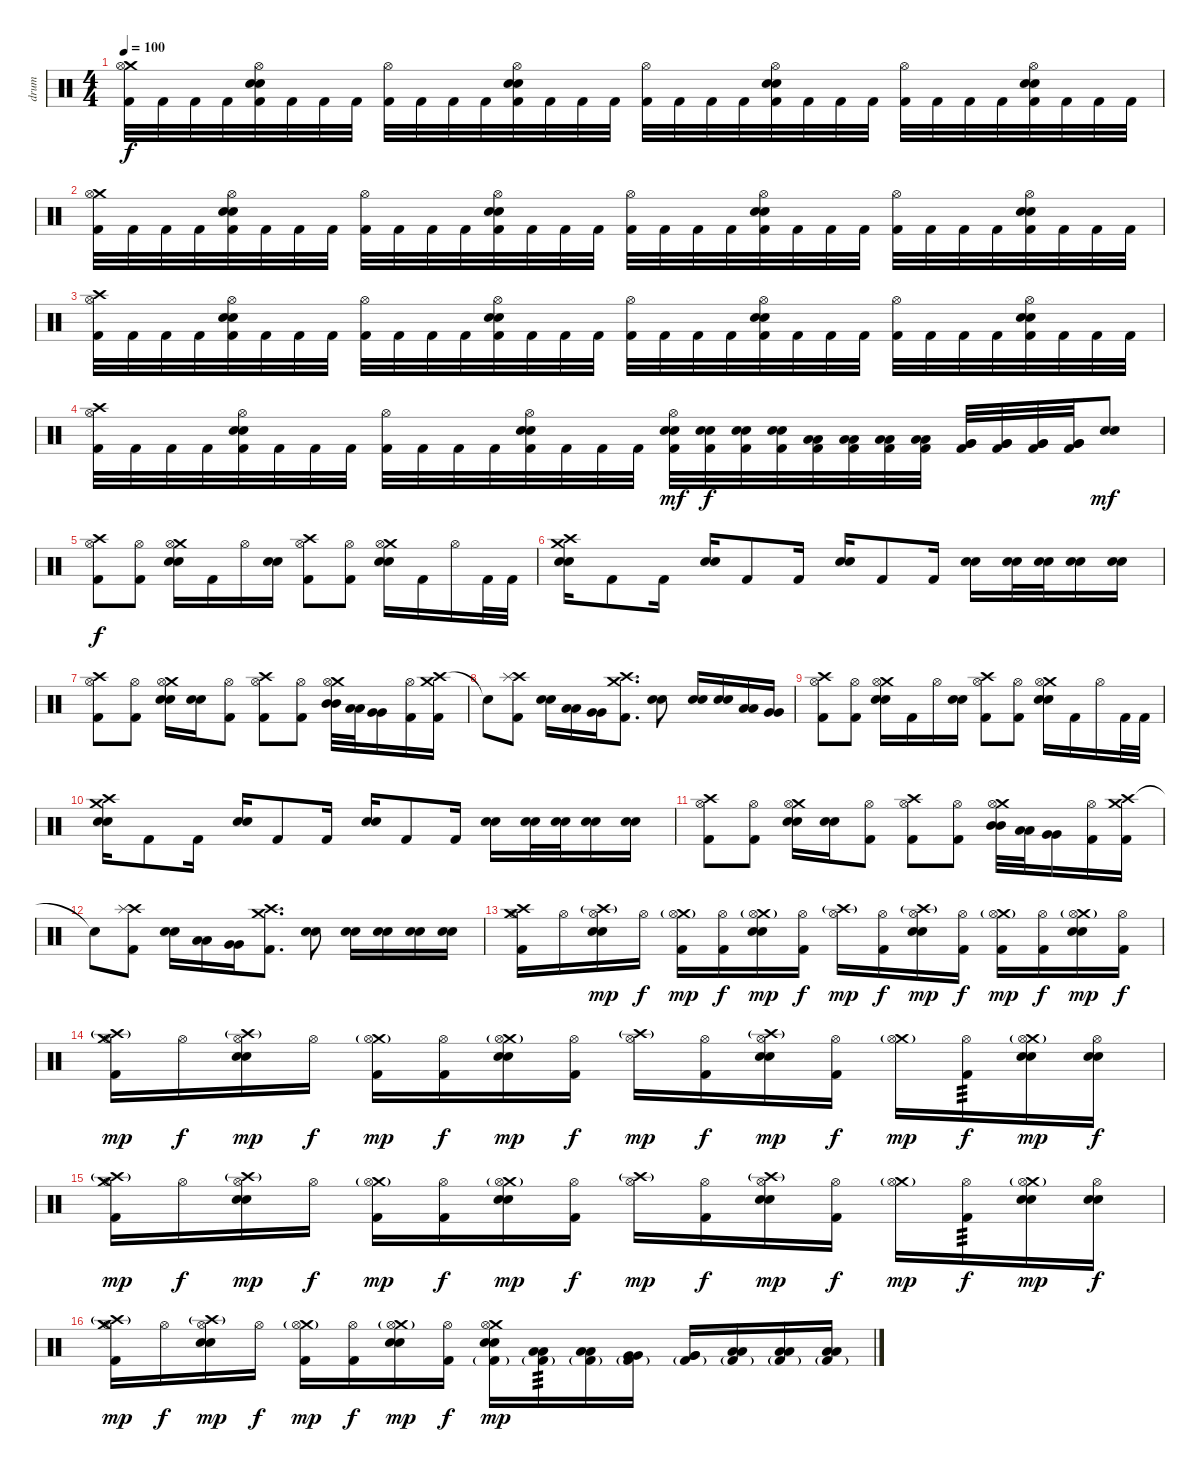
\track ("drum" "drum") {instrument percussion}
\staff {score}
\articulation defaults
\ts (4 4)
\tempo 100
\clef neutral
\ks c
("Crash medium (hit)" "Hi-Hat (open)" "Kick (hit) 2").32{dy f} "Kick (hit) 2".32 "Kick (hit) 2".32 "Kick (hit) 2".32 ("Hi-Hat (open)" "Electric Snare (hit)" "Snare (hit) 2" "Kick (hit) 2").32 "Kick (hit) 2".32 "Kick (hit) 2".32 "Kick (hit) 2".32 ("Hi-Hat (open)" "Kick (hit) 2").32 "Kick (hit) 2".32 "Kick (hit) 2".32 "Kick (hit) 2".32 ("Hi-Hat (open)" "Electric Snare (hit)" "Snare (hit) 2" "Kick (hit) 2").32 "Kick (hit) 2".32 "Kick (hit) 2".32 "Kick (hit) 2".32 ("Hi-Hat (open)" "Kick (hit) 2").32 "Kick (hit) 2".32 "Kick (hit) 2".32 "Kick (hit) 2".32 ("Hi-Hat (open)" "Electric Snare (hit)" "Snare (hit) 2" "Kick (hit) 2").32 "Kick (hit) 2".32 "Kick (hit) 2".32 "Kick (hit) 2".32 ("Hi-Hat (open)" "Kick (hit) 2").32 "Kick (hit) 2".32 "Kick (hit) 2".32 "Kick (hit) 2".32 ("Hi-Hat (open)" "Electric Snare (hit)" "Snare (hit) 2" "Kick (hit) 2").32 "Kick (hit) 2".32 "Kick (hit) 2".32 "Kick (hit) 2".32 |
("Crash medium (hit)" "Hi-Hat (open)" "Kick (hit) 2").32 "Kick (hit) 2".32 "Kick (hit) 2".32 "Kick (hit) 2".32 ("Hi-Hat (open)" "Electric Snare (hit)" "Snare (hit) 2" "Kick (hit) 2").32 "Kick (hit) 2".32 "Kick (hit) 2".32 "Kick (hit) 2".32 ("Hi-Hat (open)" "Kick (hit) 2").32 "Kick (hit) 2".32 "Kick (hit) 2".32 "Kick (hit) 2".32 ("Hi-Hat (open)" "Electric Snare (hit)" "Snare (hit) 2" "Kick (hit) 2").32 "Kick (hit) 2".32 "Kick (hit) 2".32 "Kick (hit) 2".32 ("Hi-Hat (open)" "Kick (hit) 2").32 "Kick (hit) 2".32 "Kick (hit) 2".32 "Kick (hit) 2".32 ("Hi-Hat (open)" "Electric Snare (hit)" "Snare (hit) 2" "Kick (hit) 2").32 "Kick (hit) 2".32 "Kick (hit) 2".32 "Kick (hit) 2".32 ("Hi-Hat (open)" "Kick (hit) 2").32 "Kick (hit) 2".32 "Kick (hit) 2".32 "Kick (hit) 2".32 ("Hi-Hat (open)" "Electric Snare (hit)" "Snare (hit) 2" "Kick (hit) 2").32 "Kick (hit) 2".32 "Kick (hit) 2".32 "Kick (hit) 2".32 |
("Crash high (hit)" "Hi-Hat (open)" "Kick (hit) 2").32 "Kick (hit) 2".32 "Kick (hit) 2".32 "Kick (hit) 2".32 ("Hi-Hat (open)" "Electric Snare (hit)" "Snare (hit) 2" "Kick (hit) 2").32 "Kick (hit) 2".32 "Kick (hit) 2".32 "Kick (hit) 2".32 ("Hi-Hat (open)" "Kick (hit) 2").32 "Kick (hit) 2".32 "Kick (hit) 2".32 "Kick (hit) 2".32 ("Hi-Hat (open)" "Electric Snare (hit)" "Snare (hit) 2" "Kick (hit) 2").32 "Kick (hit) 2".32 "Kick (hit) 2".32 "Kick (hit) 2".32 ("Hi-Hat (open)" "Kick (hit) 2").32 "Kick (hit) 2".32 "Kick (hit) 2".32 "Kick (hit) 2".32 ("Hi-Hat (open)" "Electric Snare (hit)" "Snare (hit) 2" "Kick (hit) 2").32 "Kick (hit) 2".32 "Kick (hit) 2".32 "Kick (hit) 2".32 ("Hi-Hat (open)" "Kick (hit) 2").32 "Kick (hit) 2".32 "Kick (hit) 2".32 "Kick (hit) 2".32 ("Hi-Hat (open)" "Electric Snare (hit)" "Snare (hit) 2" "Kick (hit) 2").32 "Kick (hit) 2".32 "Kick (hit) 2".32 "Kick (hit) 2".32 |
("Crash high (hit)" "Hi-Hat (open)" "Kick (hit) 2").32 "Kick (hit) 2".32 "Kick (hit) 2".32 "Kick (hit) 2".32 ("Hi-Hat (open)" "Electric Snare (hit)" "Snare (hit) 2" "Kick (hit) 2").32 "Kick (hit) 2".32 "Kick (hit) 2".32 "Kick (hit) 2".32 ("Hi-Hat (open)" "Kick (hit) 2").32 "Kick (hit) 2".32 "Kick (hit) 2".32 "Kick (hit) 2".32 ("Hi-Hat (open)" "Electric Snare (hit)" "Snare (hit) 2" "Kick (hit) 2").32 "Kick (hit) 2".32 "Kick (hit) 2".32 "Kick (hit) 2".32 ("Hi-Hat (open)" "Electric Snare (hit)" "Snare (hit) 2" "Kick (hit) 2").32{dy mf} ("Electric Snare (hit)" "Snare (hit) 2" "Kick (hit) 2").32{dy f} ("Electric Snare (hit)" "Snare (hit) 2" "Kick (hit) 2").32 ("Electric Snare (hit)" "Snare (hit) 2" "Kick (hit) 2").32 ("Low Tom (hit)" "Low Tom (hit)" "Kick (hit) 2").32 ("Low Tom (hit)" "Low Tom (hit)" "Kick (hit) 2").32 ("Low Tom (hit)" "Low Tom (hit)" "Kick (hit) 2").32 ("Low Tom (hit)" "Low Tom (hit)" "Kick (hit) 2").32 ("Very Low Tom (hit)" "Very Low Tom (hit)" "Kick (hit) 2").32 ("Very Low Tom (hit)" "Very Low Tom (hit)" "Kick (hit) 2").32 ("Very Low Tom (hit)" "Very Low Tom (hit)" "Kick (hit) 2").32 ("Very Low Tom (hit)" "Very Low Tom (hit)" "Kick (hit) 2").32 ("Electric Snare (hit)" "Snare (hit) 2").8{bd 60 dy mf} |
("Crash high (hit)" "Hi-Hat (open)" "Kick (hit) 2").8{dy f} ("Hi-Hat (open)" "Kick (hit) 2").8 ("Crash medium (hit)" "Hi-Hat (open)" "Electric Snare (hit)" "Snare (hit) 2").16 "Kick (hit) 2".16 "Hi-Hat (open)".16 ("Electric Snare (hit)" "Snare (hit) 2").16 ("Crash high (hit)" "Hi-Hat (open)" "Kick (hit) 2").8 ("Hi-Hat (open)" "Kick (hit) 2").8 ("Crash medium (hit)" "Hi-Hat (open)" "Electric Snare (hit)" "Snare (hit) 2").16 "Kick (hit) 2".16 "Hi-Hat (open)".16 "Kick (hit) 2".32 "Kick (hit) 2".32 |
("Crash medium (hit)" "Crash high (hit)" "Electric Snare (hit)" "Snare (hit) 2").16 "Kick (hit) 2".8 "Kick (hit) 2".16 ("Electric Snare (hit)" "Snare (hit) 2").16 "Kick (hit) 2".8 "Kick (hit) 2".16 ("Electric Snare (hit)" "Snare (hit) 2").16 "Kick (hit) 2".8 "Kick (hit) 2".16 ("Electric Snare (hit)" "Snare (hit) 2").16 ("Electric Snare (hit)" "Snare (hit) 2").32 ("Electric Snare (hit)" "Snare (hit) 2").32 ("Electric Snare (hit)" "Snare (hit) 2").16 ("Electric Snare (hit)" "Snare (hit) 2").16 |
("Crash high (hit)" "Hi-Hat (open)" "Kick (hit) 2").8 ("Hi-Hat (open)" "Kick (hit) 2").8 ("Crash medium (hit)" "Hi-Hat (open)" "Electric Snare (hit)" "Snare (hit) 2").16 ("Electric Snare (hit)" "Snare (hit) 2").16 ("Hi-Hat (open)" "Kick (hit) 2").8 ("Crash high (hit)" "Hi-Hat (open)" "Kick (hit) 2").8 ("Hi-Hat (open)" "Kick (hit) 2").8 ("Crash medium (hit)" "Hi-Hat (open)" "Mid Tom (hit)" "Mid Tom (hit)").32 ("Low Tom (hit)" "Low Tom (hit)").32 ("Very Low Tom (hit)" "Very Low Tom (hit)").16 ("Hi-Hat (open)" "Kick (hit) 2").16 ("Crash high (hit)" "Crash medium (hit)" "Kick (hit) 2").16 |
"Snare (hit)"{t}.8 ("Crash high (hit)" "Splash (hit)" "Kick (hit) 2").8 ("Electric Snare (hit)" "Snare (hit) 2").16 ("Low Tom (hit)" "Low Tom (hit)").16 ("Very Low Tom (hit)" "Very Low Tom (hit)").16 ("Crash high (hit)" "Crash medium (hit)" "Kick (hit) 2").8{d} ("Electric Snare (hit)" "Snare (hit) 2").8 ("Electric Snare (hit)" "Snare (hit) 2").16 ("Electric Snare (hit)" "Snare (hit) 2").16 ("Low Tom (hit)" "Low Tom (hit)").16 ("Very Low Tom (hit)" "Very Low Tom (hit)").16 |
("Crash high (hit)" "Hi-Hat (open)" "Kick (hit) 2").8 ("Hi-Hat (open)" "Kick (hit) 2").8 ("Crash medium (hit)" "Hi-Hat (open)" "Electric Snare (hit)" "Snare (hit) 2").16 "Kick (hit) 2".16 "Hi-Hat (open)".16 ("Electric Snare (hit)" "Snare (hit) 2").16 ("Crash high (hit)" "Hi-Hat (open)" "Kick (hit) 2").8 ("Hi-Hat (open)" "Kick (hit) 2").8 ("Crash medium (hit)" "Hi-Hat (open)" "Electric Snare (hit)" "Snare (hit) 2").16 "Kick (hit) 2".16 "Hi-Hat (open)".16 "Kick (hit) 2".32 "Kick (hit) 2".32 |
("Crash medium (hit)" "Crash high (hit)" "Electric Snare (hit)" "Snare (hit) 2").16 "Kick (hit) 2".8 "Kick (hit) 2".16 ("Electric Snare (hit)" "Snare (hit) 2").16 "Kick (hit) 2".8 "Kick (hit) 2".16 ("Electric Snare (hit)" "Snare (hit) 2").16 "Kick (hit) 2".8 "Kick (hit) 2".16 ("Electric Snare (hit)" "Snare (hit) 2").16 ("Electric Snare (hit)" "Snare (hit) 2").32 ("Electric Snare (hit)" "Snare (hit) 2").32 ("Electric Snare (hit)" "Snare (hit) 2").16 ("Electric Snare (hit)" "Snare (hit) 2").16 |
("Crash high (hit)" "Hi-Hat (open)" "Kick (hit) 2").8 ("Hi-Hat (open)" "Kick (hit) 2").8 ("Crash medium (hit)" "Hi-Hat (open)" "Electric Snare (hit)" "Snare (hit) 2").16 ("Electric Snare (hit)" "Snare (hit) 2").16 ("Hi-Hat (open)" "Kick (hit) 2").8 ("Crash high (hit)" "Hi-Hat (open)" "Kick (hit) 2").8 ("Hi-Hat (open)" "Kick (hit) 2").8 ("Crash medium (hit)" "Hi-Hat (open)" "Mid Tom (hit)" "Mid Tom (hit)").32 ("Low Tom (hit)" "Low Tom (hit)").32 ("Very Low Tom (hit)" "Very Low Tom (hit)").16 ("Hi-Hat (open)" "Kick (hit) 2").16 ("Crash high (hit)" "Crash medium (hit)" "Kick (hit) 2").16 |
"Snare (hit)"{t}.8 ("Crash high (hit)" "Splash (hit)" "Kick (hit) 2").8 ("Electric Snare (hit)" "Snare (hit) 2").16 ("Low Tom (hit)" "Low Tom (hit)").16 ("Very Low Tom (hit)" "Very Low Tom (hit)").16 ("Crash high (hit)" "Crash medium (hit)" "Kick (hit) 2").8{d} ("Electric Snare (hit)" "Snare (hit) 2").8 ("Electric Snare (hit)" "Snare (hit) 2").16 ("Electric Snare (hit)" "Snare (hit) 2").16 ("Electric Snare (hit)" "Snare (hit) 2").16 ("Electric Snare (hit)" "Snare (hit) 2").16 |
("Crash high (hit)" "Hi-Hat (open)" "Crash medium (hit)" "Kick (hit) 2").16 "Hi-Hat (open)".16 ("Crash high (hit)"{g} "Hi-Hat (open)" "Snare (hit) 2" "Electric Snare (hit)").16{dy mp} "Hi-Hat (open)".16{dy f} ("Crash medium (hit)"{g} "Hi-Hat (open)" "Kick (hit) 2").16{dy mp} ("Hi-Hat (open)" "Kick (hit) 2").16{dy f} ("Crash medium (hit)"{g} "Hi-Hat (open)" "Snare (hit) 2" "Electric Snare (hit)").16{dy mp} ("Hi-Hat (open)" "Kick (hit) 2").16{dy f} ("Crash high (hit)"{g} "Hi-Hat (open)").16{dy mp} ("Hi-Hat (open)" "Kick (hit) 2").16{dy f} ("Crash high (hit)"{g} "Hi-Hat (open)" "Snare (hit) 2" "Electric Snare (hit)").16{dy mp} ("Hi-Hat (open)" "Kick (hit) 2").16{dy f} ("Crash medium (hit)"{g} "Hi-Hat (open)" "Kick (hit) 2").16{dy mp} ("Hi-Hat (open)" "Kick (hit) 2").16{dy f} ("Crash medium (hit)"{g} "Hi-Hat (open)" "Snare (hit) 2" "Electric Snare (hit)").16{dy mp} ("Hi-Hat (open)" "Kick (hit) 2").16{dy f} |
("Crash high (hit)"{g} "Hi-Hat (open)" "Crash medium (hit)" "Kick (hit) 2").16{dy mp} "Hi-Hat (open)".16{dy f} ("Crash high (hit)"{g} "Hi-Hat (open)" "Snare (hit) 2" "Electric Snare (hit)").16{dy mp} "Hi-Hat (open)".16{dy f} ("Crash medium (hit)"{g} "Hi-Hat (open)" "Kick (hit) 2").16{dy mp} ("Hi-Hat (open)" "Kick (hit) 2").16{dy f} ("Crash medium (hit)"{g} "Hi-Hat (open)" "Snare (hit) 2" "Electric Snare (hit)").16{dy mp} ("Hi-Hat (open)" "Kick (hit) 2").16{dy f} ("Crash high (hit)"{g} "Hi-Hat (open)").16{dy mp} ("Hi-Hat (open)" "Kick (hit) 2").16{dy f} ("Crash high (hit)"{g} "Hi-Hat (open)" "Snare (hit) 2" "Electric Snare (hit)").16{dy mp} ("Hi-Hat (open)" "Kick (hit) 2").16{dy f} ("Crash medium (hit)"{g} "Hi-Hat (open)").16{dy mp} ("Hi-Hat (open)" "Kick (hit) 2").16{tp 3 dy f} ("Crash medium (hit)"{g} "Hi-Hat (open)" "Snare (hit) 2" "Electric Snare (hit)").16{dy mp} ("Hi-Hat (open)" "Snare (hit) 2" "Electric Snare (hit)").16{dy f} |
("Crash high (hit)"{g} "Hi-Hat (open)" "Crash medium (hit)" "Kick (hit) 2").16{dy mp} "Hi-Hat (open)".16{dy f} ("Crash high (hit)"{g} "Hi-Hat (open)" "Snare (hit) 2" "Electric Snare (hit)").16{dy mp} "Hi-Hat (open)".16{dy f} ("Crash medium (hit)"{g} "Hi-Hat (open)" "Kick (hit) 2").16{dy mp} ("Hi-Hat (open)" "Kick (hit) 2").16{dy f} ("Crash medium (hit)"{g} "Hi-Hat (open)" "Snare (hit) 2" "Electric Snare (hit)").16{dy mp} ("Hi-Hat (open)" "Kick (hit) 2").16{dy f} ("Crash high (hit)"{g} "Hi-Hat (open)").16{dy mp} ("Hi-Hat (open)" "Kick (hit) 2").16{dy f} ("Crash high (hit)"{g} "Hi-Hat (open)" "Snare (hit) 2" "Electric Snare (hit)").16{dy mp} ("Hi-Hat (open)" "Kick (hit) 2").16{dy f} ("Crash medium (hit)"{g} "Hi-Hat (open)").16{dy mp} ("Hi-Hat (open)" "Kick (hit) 2").16{tp 3 dy f} ("Crash medium (hit)"{g} "Hi-Hat (open)" "Snare (hit) 2" "Electric Snare (hit)").16{dy mp} ("Hi-Hat (open)" "Snare (hit) 2" "Electric Snare (hit)").16{dy f} |
("Crash high (hit)"{g} "Hi-Hat (open)" "Crash medium (hit)" "Kick (hit) 2").16{dy mp} "Hi-Hat (open)".16{dy f} ("Crash high (hit)"{g} "Hi-Hat (open)" "Snare (hit) 2" "Electric Snare (hit)").16{dy mp} "Hi-Hat (open)".16{dy f} ("Crash medium (hit)"{g} "Hi-Hat (open)" "Kick (hit) 2").16{dy mp} ("Hi-Hat (open)" "Kick (hit) 2").16{dy f} ("Crash medium (hit)"{g} "Hi-Hat (open)" "Snare (hit) 2" "Electric Snare (hit)").16{dy mp} ("Hi-Hat (open)" "Kick (hit) 2").16{dy f} ("Crash medium (hit)" "Hi-Hat (open)" "Snare (hit) 2" "Electric Snare (hit)" "Kick (hit) 2"{g}).16{dy mp} ("Low Tom (hit)" "Low Tom (hit)" "Kick (hit) 2"{g}).16{tp 3} ("Low Tom (hit)" "Low Tom (hit)" "Kick (hit) 2"{g}).16 ("Very Low Tom (hit)" "Very Low Tom (hit)" "Kick (hit) 2"{g}).16 ("Very Low Tom (hit)" "Very Low Tom (hit)" "Kick (hit) 2"{g}).16 ("Low Floor Tom (hit)" "Low Floor Tom (hit)" "Kick (hit) 2"{g}).16 ("Low Floor Tom (hit)" "Low Floor Tom (hit)" "Kick (hit) 2"{g}).16 ("Low Floor Tom (hit)" "Low Floor Tom (hit)" "Kick (hit) 2"{g}).16
